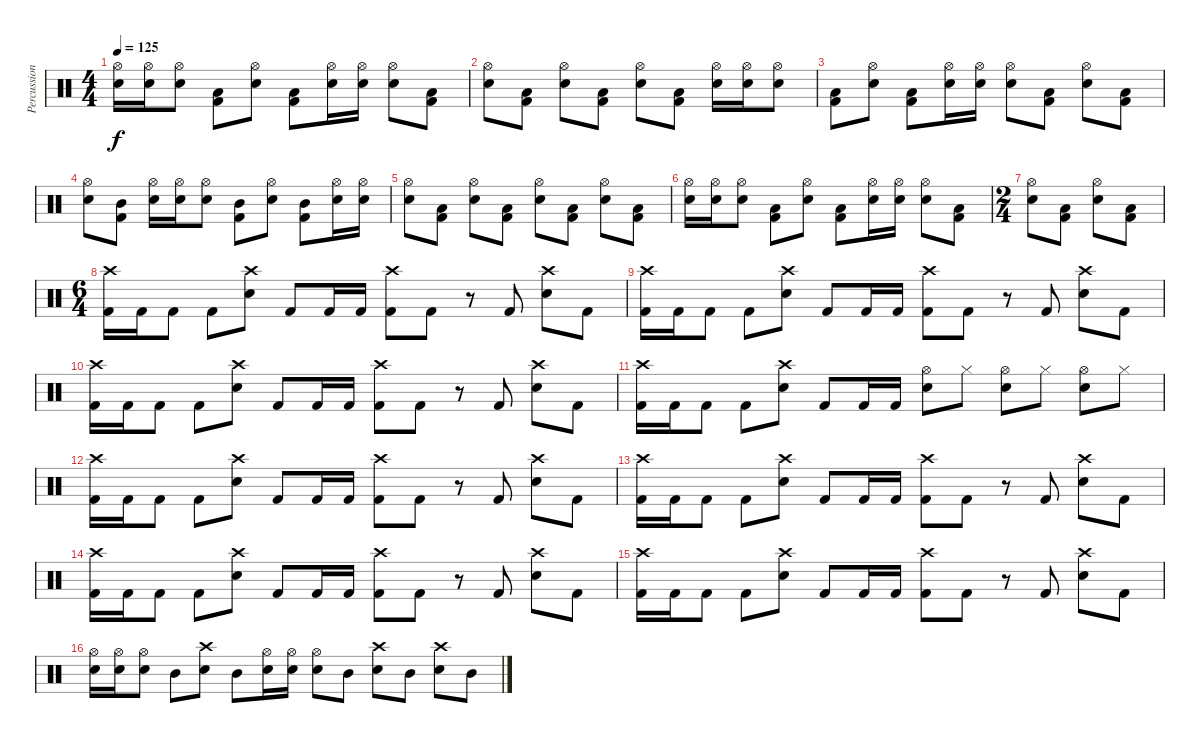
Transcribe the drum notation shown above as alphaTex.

\track ("Percussion" "Percussion") {instrument percussion}
\staff {score}
\articulation defaults
\ts (4 4)
\tempo 125
\clef neutral
\ks c
("Hi-Hat (open)" "Electric Snare (hit)").16{dy f} ("Hi-Hat (open)" "Electric Snare (hit)").16 ("Hi-Hat (open)" "Electric Snare (hit)").8 ("Low Tom (hit)" "Kick (hit) 2").8 ("Hi-Hat (open)" "Electric Snare (hit)").8 ("Low Tom (hit)" "Kick (hit) 2").8 ("Hi-Hat (open)" "Electric Snare (hit)").16 ("Hi-Hat (open)" "Electric Snare (hit)").16 ("Hi-Hat (open)" "Electric Snare (hit)").8 ("Low Tom (hit)" "Kick (hit) 2").8 |
("Hi-Hat (open)" "Electric Snare (hit)").8 ("Low Tom (hit)" "Kick (hit) 2").8 ("Hi-Hat (open)" "Electric Snare (hit)").8 ("Low Tom (hit)" "Kick (hit) 2").8 ("Hi-Hat (open)" "Electric Snare (hit)").8 ("Low Tom (hit)" "Kick (hit) 2").8 ("Hi-Hat (open)" "Electric Snare (hit)").16 ("Hi-Hat (open)" "Electric Snare (hit)").16 ("Hi-Hat (open)" "Electric Snare (hit)").8 |
("Low Tom (hit)" "Kick (hit) 2").8 ("Hi-Hat (open)" "Electric Snare (hit)").8 ("Low Tom (hit)" "Kick (hit) 2").8 ("Hi-Hat (open)" "Electric Snare (hit)").16 ("Hi-Hat (open)" "Electric Snare (hit)").16 ("Hi-Hat (open)" "Electric Snare (hit)").8 ("Low Tom (hit)" "Kick (hit) 2").8 ("Hi-Hat (open)" "Electric Snare (hit)").8 ("Low Tom (hit)" "Kick (hit) 2").8 |
("Hi-Hat (open)" "Electric Snare (hit)").8 ("Mid Tom (hit)" "Kick (hit) 2").8 ("Hi-Hat (open)" "Electric Snare (hit)").16 ("Hi-Hat (open)" "Electric Snare (hit)").16 ("Hi-Hat (open)" "Electric Snare (hit)").8 ("Mid Tom (hit)" "Kick (hit) 2").8 ("Hi-Hat (open)" "Electric Snare (hit)").8 ("Mid Tom (hit)" "Kick (hit) 2").8 ("Hi-Hat (open)" "Electric Snare (hit)").16 ("Hi-Hat (open)" "Electric Snare (hit)").16 |
("Hi-Hat (open)" "Electric Snare (hit)").8 ("Low Tom (hit)" "Kick (hit) 2").8 ("Hi-Hat (open)" "Electric Snare (hit)").8 ("Low Tom (hit)" "Kick (hit) 2").8 ("Hi-Hat (open)" "Electric Snare (hit)").8 ("Low Tom (hit)" "Kick (hit) 2").8 ("Hi-Hat (open)" "Electric Snare (hit)").8 ("Low Tom (hit)" "Kick (hit) 2").8 |
("Hi-Hat (open)" "Electric Snare (hit)").16 ("Hi-Hat (open)" "Electric Snare (hit)").16 ("Hi-Hat (open)" "Electric Snare (hit)").8 ("Low Tom (hit)" "Kick (hit) 2").8 ("Hi-Hat (open)" "Electric Snare (hit)").8 ("Low Tom (hit)" "Kick (hit) 2").8 ("Hi-Hat (open)" "Electric Snare (hit)").16 ("Hi-Hat (open)" "Electric Snare (hit)").16 ("Hi-Hat (open)" "Electric Snare (hit)").8 ("Low Tom (hit)" "Kick (hit) 2").8 |
\ts (2 4)
("Hi-Hat (open)" "Electric Snare (hit)").8 ("Low Tom (hit)" "Kick (hit) 2").8 ("Hi-Hat (open)" "Electric Snare (hit)").8 ("Low Tom (hit)" "Kick (hit) 2").8 |
\ts (6 4)
("Crash high (hit)" "Kick (hit) 2").16 "Kick (hit) 2".16 "Kick (hit) 2".8 "Kick (hit) 2".8 ("Crash high (hit)" "Electric Snare (hit)").8 "Kick (hit) 2".8 "Kick (hit) 2".16 "Kick (hit) 2".16 ("Crash high (hit)" "Kick (hit) 2").8 "Kick (hit) 2".8 r.8 "Kick (hit) 2".8 ("Crash high (hit)" "Electric Snare (hit)").8 "Kick (hit) 2".8 |
("Crash high (hit)" "Kick (hit) 2").16 "Kick (hit) 2".16 "Kick (hit) 2".8 "Kick (hit) 2".8 ("Crash high (hit)" "Electric Snare (hit)").8 "Kick (hit) 2".8 "Kick (hit) 2".16 "Kick (hit) 2".16 ("Crash high (hit)" "Kick (hit) 2").8 "Kick (hit) 2".8 r.8 "Kick (hit) 2".8 ("Crash high (hit)" "Electric Snare (hit)").8 "Kick (hit) 2".8 |
("Crash high (hit)" "Kick (hit) 2").16 "Kick (hit) 2".16 "Kick (hit) 2".8 "Kick (hit) 2".8 ("Crash high (hit)" "Electric Snare (hit)").8 "Kick (hit) 2".8 "Kick (hit) 2".16 "Kick (hit) 2".16 ("Crash high (hit)" "Kick (hit) 2").8 "Kick (hit) 2".8 r.8 "Kick (hit) 2".8 ("Crash high (hit)" "Electric Snare (hit)").8 "Kick (hit) 2".8 |
("Crash high (hit)" "Kick (hit) 2").16 "Kick (hit) 2".16 "Kick (hit) 2".8 "Kick (hit) 2".8 ("Crash high (hit)" "Electric Snare (hit)").8 "Kick (hit) 2".8 "Kick (hit) 2".16 "Kick (hit) 2".16 ("Hi-Hat (open)" "Electric Snare (hit)").8 "Hi-Hat (closed)".8 ("Hi-Hat (open)" "Electric Snare (hit)").8 "Hi-Hat (closed)".8 ("Hi-Hat (open)" "Electric Snare (hit)").8 "Hi-Hat (closed)".8 |
("Crash high (hit)" "Kick (hit) 2").16 "Kick (hit) 2".16 "Kick (hit) 2".8 "Kick (hit) 2".8 ("Crash high (hit)" "Electric Snare (hit)").8 "Kick (hit) 2".8 "Kick (hit) 2".16 "Kick (hit) 2".16 ("Crash high (hit)" "Kick (hit) 2").8 "Kick (hit) 2".8 r.8 "Kick (hit) 2".8 ("Crash high (hit)" "Electric Snare (hit)").8 "Kick (hit) 2".8 |
("Crash high (hit)" "Kick (hit) 2").16 "Kick (hit) 2".16 "Kick (hit) 2".8 "Kick (hit) 2".8 ("Crash high (hit)" "Electric Snare (hit)").8 "Kick (hit) 2".8 "Kick (hit) 2".16 "Kick (hit) 2".16 ("Crash high (hit)" "Kick (hit) 2").8 "Kick (hit) 2".8 r.8 "Kick (hit) 2".8 ("Crash high (hit)" "Electric Snare (hit)").8 "Kick (hit) 2".8 |
("Crash high (hit)" "Kick (hit) 2").16 "Kick (hit) 2".16 "Kick (hit) 2".8 "Kick (hit) 2".8 ("Crash high (hit)" "Electric Snare (hit)").8 "Kick (hit) 2".8 "Kick (hit) 2".16 "Kick (hit) 2".16 ("Crash high (hit)" "Kick (hit) 2").8 "Kick (hit) 2".8 r.8 "Kick (hit) 2".8 ("Crash high (hit)" "Electric Snare (hit)").8 "Kick (hit) 2".8 |
("Crash high (hit)" "Kick (hit) 2").16 "Kick (hit) 2".16 "Kick (hit) 2".8 "Kick (hit) 2".8 ("Crash high (hit)" "Electric Snare (hit)").8 "Kick (hit) 2".8 "Kick (hit) 2".16 "Kick (hit) 2".16 ("Crash high (hit)" "Kick (hit) 2").8 "Kick (hit) 2".8 r.8 "Kick (hit) 2".8 ("Crash high (hit)" "Electric Snare (hit)").8 "Kick (hit) 2".8 |
("Hi-Hat (open)" "Electric Snare (hit)").16 ("Hi-Hat (open)" "Electric Snare (hit)").16 ("Hi-Hat (open)" "Electric Snare (hit)").8 "Mid Tom (hit)".8 ("Crash high (hit)" "Electric Snare (hit)").8 "Mid Tom (hit)".8 ("Hi-Hat (open)" "Electric Snare (hit)").16 ("Hi-Hat (open)" "Electric Snare (hit)").16 ("Hi-Hat (open)" "Electric Snare (hit)").8 "Mid Tom (hit)".8 ("Crash high (hit)" "Electric Snare (hit)").8 "Mid Tom (hit)".8 ("Crash high (hit)" "Electric Snare (hit)").8 "Mid Tom (hit)".8
